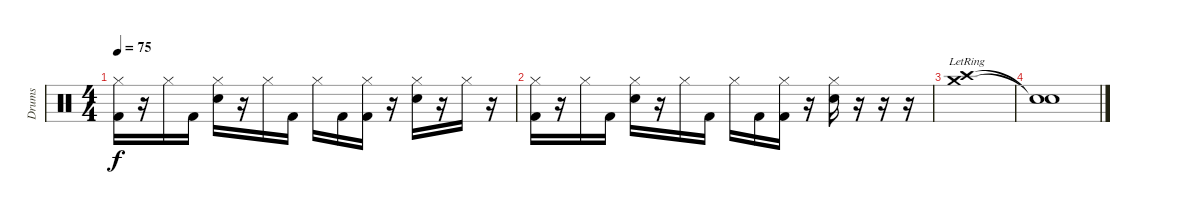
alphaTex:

\track ("Drums" "Drums") {instrument percussion}
\staff {score}
\articulation defaults
\ts (4 4)
\tempo 75
\clef neutral
\ks c
("Hi-Hat (closed)" "Kick (hit) 2").16{dy f} r.16 "Hi-Hat (closed)".16 "Kick (hit) 2".16 ("Hi-Hat (closed)" "Snare (hit) 2").16 r.16 "Hi-Hat (closed)".16 "Kick (hit) 2".16 "Hi-Hat (closed)".16 "Kick (hit) 2".16 ("Hi-Hat (closed)" "Kick (hit) 2").16 r.16 ("Hi-Hat (closed)" "Snare (hit) 2").16 r.16 "Hi-Hat (closed)".16 r.16 |
("Hi-Hat (closed)" "Kick (hit) 2").16 r.16 "Hi-Hat (closed)".16 "Kick (hit) 2".16 ("Hi-Hat (closed)" "Snare (hit) 2").16 r.16 "Hi-Hat (closed)".16 "Kick (hit) 2".16 "Hi-Hat (closed)".16 "Kick (hit) 2".16 ("Hi-Hat (closed)" "Kick (hit) 2").16 r.16 ("Hi-Hat (closed)" "Snare (hit) 2").16 r.16 r.16 r.16 |
("Crash high (hit)"{lr} "Crash medium (hit)"{lr}).1 |
("Snare (hit)"{t} "Snare (hit)"{t}).1
